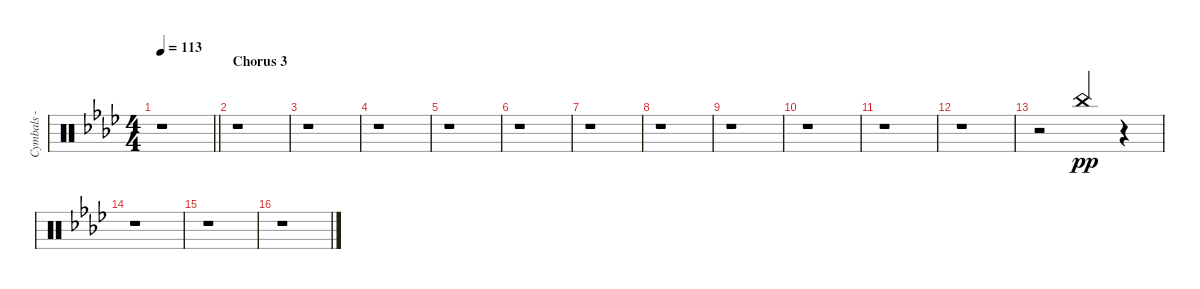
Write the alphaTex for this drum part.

\track ("Cymbals - china" "Cymbals - ") {instrument percussion}
\staff {score}
\articulation defaults
\ts (4 4)
\tempo 113
\clef neutral
\barLineRight lightlight
\ks fminor
r.1{dy pp} |
\section ("" "Chorus 3")
r.1 |
r.1 |
r.1 |
r.1 |
r.1 |
r.1 |
r.1 |
r.1 |
r.1 |
r.1 |
r.1 |
r.2 "China (hit)".4{beam Up} r.4 |
r.1 |
r.1 |
r.1
